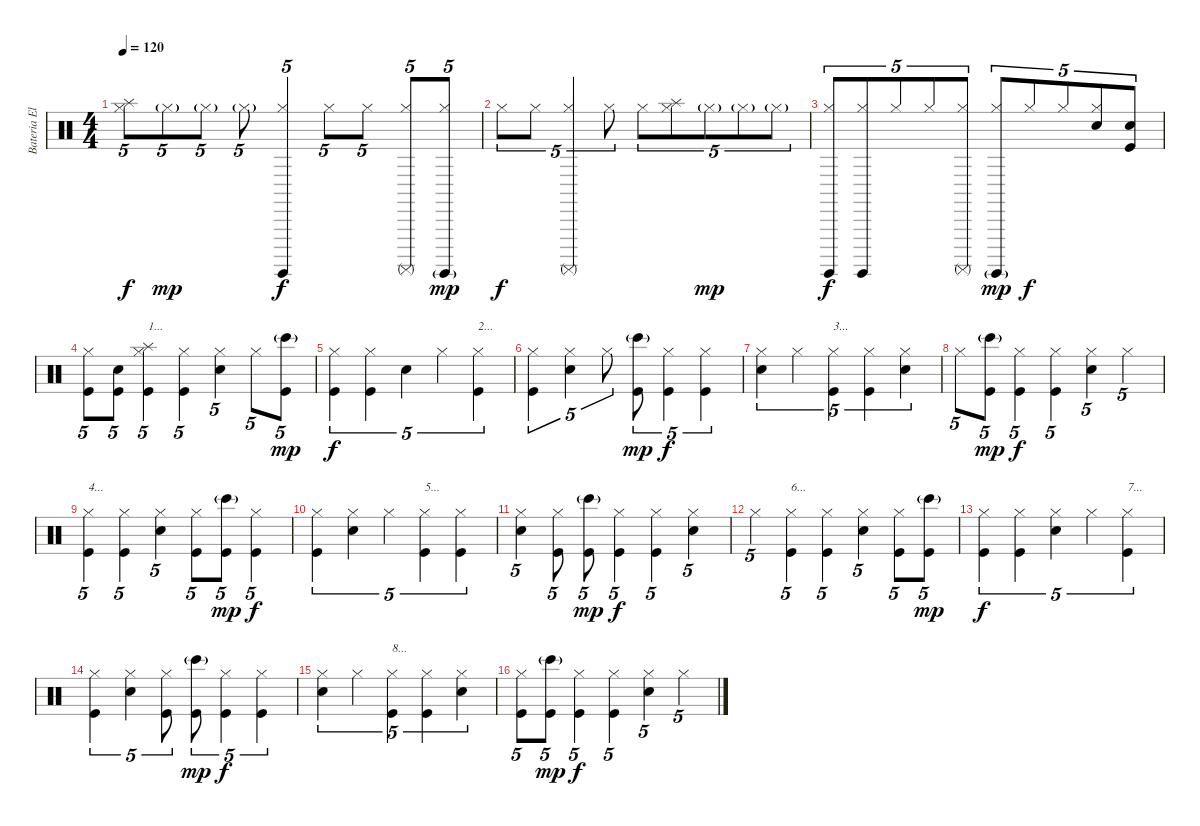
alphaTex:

\track ("Bateria Eletrônica" "Bateria El") {instrument percussion}
\staff {score}
\articulation defaults
\ts (4 4)
\tempo 120
\clef neutral
\ks c
("Hi-Hat (closed)" "Splash (hit)").8{tu (5 4) dy f} "Hi-Hat (closed)"{g}.8{tu (5 4) dy mp} "Hi-Hat (closed)"{g}.8{tu (5 4)} "Hi-Hat (closed)"{g}.8{tu (5 4)} ("Hi-Hat (closed)" "Surdo (hit)").4{tu (5 4) dy f} "Hi-Hat (closed)".8{tu (5 4)} "Hi-Hat (closed)".8{tu (5 4)} ("Hi-Hat (closed)" "Surdo (mute)").8{tu (5 4)} ("Hi-Hat (closed)" "Surdo (hit)"{g}).8{tu (5 4) dy mp} |
"Hi-Hat (closed)".8{tu (5 4) dy f} "Hi-Hat (closed)".8{tu (5 4)} ("Hi-Hat (closed)" "Surdo (mute)").4{tu (5 4)} "Hi-Hat (closed)".8{tu (5 4)} "Hi-Hat (closed)".8{tu (5 4)} ("Hi-Hat (closed)" "Splash (hit)").8{tu (5 4)} "Hi-Hat (closed)"{g}.8{tu (5 4) dy mp} "Hi-Hat (closed)"{g}.8{tu (5 4)} "Hi-Hat (closed)"{g}.8{tu (5 4)} |
("Hi-Hat (closed)" "Surdo (hit)").8{tu (5 4) dy f} ("Hi-Hat (closed)" "Surdo (hit)").8{tu (5 4)} "Hi-Hat (closed)".8{tu (5 4)} "Hi-Hat (closed)".8{tu (5 4)} ("Hi-Hat (closed)" "Surdo (mute)").8{tu (5 4)} ("Hi-Hat (closed)" "Surdo (hit)"{g}).8{tu (5 4) dy mp} "Hi-Hat (closed)".8{tu (5 4) dy f} "Hi-Hat (closed)".8{tu (5 4)} ("Electric Snare (hit)" "Hi-Hat (closed)").8{tu (5 4)} ("Kick (hit)" "Snare (hit) 2").8{tu (5 4)} |
("Kick (hit)" "Hi-Hat (closed)").8{tu (5 4)} ("Kick (hit)" "Snare (hit) 2").8{tu (5 4)} ("Kick (hit)" "Splash (hit)" "Hi-Hat (closed)").4{tu (5 4) txt "1..."} ("Kick (hit)" "Hi-Hat (closed)").4{tu (5 4)} ("Snare (hit) 2" "Hi-Hat (closed)").4{tu (5 4)} "Hi-Hat (closed)".8{tu (5 4)} ("Kick (hit)" "Bongo High (hit)"{g}).8{tu (5 4) dy mp} |
("Kick (hit)" "Hi-Hat (closed)").4{tu (5 4) dy f} ("Kick (hit)" "Hi-Hat (closed)").4{tu (5 4)} "Snare (hit) 2".4{tu (5 4)} "Hi-Hat (closed)".4{tu (5 4)} ("Kick (hit)" "Hi-Hat (closed)").4{tu (5 4) txt "2..."} |
("Kick (hit)" "Hi-Hat (closed)").4{tu (5 4)} ("Snare (hit) 2" "Hi-Hat (closed)").4{tu (5 4)} "Hi-Hat (closed)".8{tu (5 4)} ("Kick (hit)" "Bongo High (hit)"{g}).8{tu (5 4) dy mp} ("Kick (hit)" "Hi-Hat (closed)").4{tu (5 4) dy f} ("Kick (hit)" "Hi-Hat (closed)").4{tu (5 4)} |
("Snare (hit) 2" "Hi-Hat (closed)").4{tu (5 4)} "Hi-Hat (closed)".4{tu (5 4)} ("Kick (hit)" "Hi-Hat (closed)").4{tu (5 4) txt "3..."} ("Kick (hit)" "Hi-Hat (closed)").4{tu (5 4)} ("Snare (hit) 2" "Hi-Hat (closed)").4{tu (5 4)} |
"Hi-Hat (closed)".8{tu (5 4)} ("Kick (hit)" "Bongo High (hit)"{g}).8{tu (5 4) dy mp} ("Kick (hit)" "Hi-Hat (closed)").4{tu (5 4) dy f} ("Kick (hit)" "Hi-Hat (closed)").4{tu (5 4)} ("Snare (hit) 2" "Hi-Hat (closed)").4{tu (5 4)} "Hi-Hat (closed)".4{tu (5 4)} |
("Kick (hit)" "Hi-Hat (closed)").4{tu (5 4) txt "4..."} ("Kick (hit)" "Hi-Hat (closed)").4{tu (5 4)} ("Snare (hit) 2" "Hi-Hat (closed)").4{tu (5 4)} ("Kick (hit)" "Hi-Hat (closed)").8{tu (5 4)} ("Kick (hit)" "Bongo High (hit)"{g}).8{tu (5 4) dy mp} ("Kick (hit)" "Hi-Hat (closed)").4{tu (5 4) dy f} |
("Kick (hit)" "Hi-Hat (closed)").4{tu (5 4)} ("Snare (hit) 2" "Hi-Hat (closed)").4{tu (5 4)} "Hi-Hat (closed)".4{tu (5 4)} ("Kick (hit)" "Hi-Hat (closed)").4{tu (5 4) txt "5..."} ("Kick (hit)" "Hi-Hat (closed)").4{tu (5 4)} |
("Snare (hit) 2" "Hi-Hat (closed)").4{tu (5 4)} ("Kick (hit)" "Hi-Hat (closed)").8{tu (5 4)} ("Kick (hit)" "Bongo High (hit)"{g}).8{tu (5 4) dy mp} ("Kick (hit)" "Hi-Hat (closed)").4{tu (5 4) dy f} ("Kick (hit)" "Hi-Hat (closed)").4{tu (5 4)} ("Snare (hit) 2" "Hi-Hat (closed)").4{tu (5 4)} |
"Hi-Hat (closed)".4{tu (5 4)} ("Kick (hit)" "Hi-Hat (closed)").4{tu (5 4) txt "6..."} ("Kick (hit)" "Hi-Hat (closed)").4{tu (5 4)} ("Snare (hit) 2" "Hi-Hat (closed)").4{tu (5 4)} ("Kick (hit)" "Hi-Hat (closed)").8{tu (5 4)} ("Kick (hit)" "Bongo High (hit)"{g}).8{tu (5 4) dy mp} |
("Kick (hit)" "Hi-Hat (closed)").4{tu (5 4) dy f} ("Kick (hit)" "Hi-Hat (closed)").4{tu (5 4)} ("Snare (hit) 2" "Hi-Hat (closed)").4{tu (5 4)} "Hi-Hat (closed)".4{tu (5 4)} ("Kick (hit)" "Hi-Hat (closed)").4{tu (5 4) txt "7..."} |
("Kick (hit)" "Hi-Hat (closed)").4{tu (5 4)} ("Snare (hit) 2" "Hi-Hat (closed)").4{tu (5 4)} ("Kick (hit)" "Hi-Hat (closed)").8{tu (5 4)} ("Kick (hit)" "Bongo High (hit)"{g}).8{tu (5 4) dy mp} ("Kick (hit)" "Hi-Hat (closed)").4{tu (5 4) dy f} ("Kick (hit)" "Hi-Hat (closed)").4{tu (5 4)} |
("Snare (hit) 2" "Hi-Hat (closed)").4{tu (5 4)} "Hi-Hat (closed)".4{tu (5 4)} ("Kick (hit)" "Hi-Hat (closed)").4{tu (5 4) txt "8..."} ("Kick (hit)" "Hi-Hat (closed)").4{tu (5 4)} ("Snare (hit) 2" "Hi-Hat (closed)").4{tu (5 4)} |
("Kick (hit)" "Hi-Hat (closed)").8{tu (5 4)} ("Kick (hit)" "Bongo High (hit)"{g}).8{tu (5 4) dy mp} ("Kick (hit)" "Hi-Hat (closed)").4{tu (5 4) dy f} ("Kick (hit)" "Hi-Hat (closed)").4{tu (5 4)} ("Snare (hit) 2" "Hi-Hat (closed)").4{tu (5 4)} "Hi-Hat (closed)".4{tu (5 4)}
